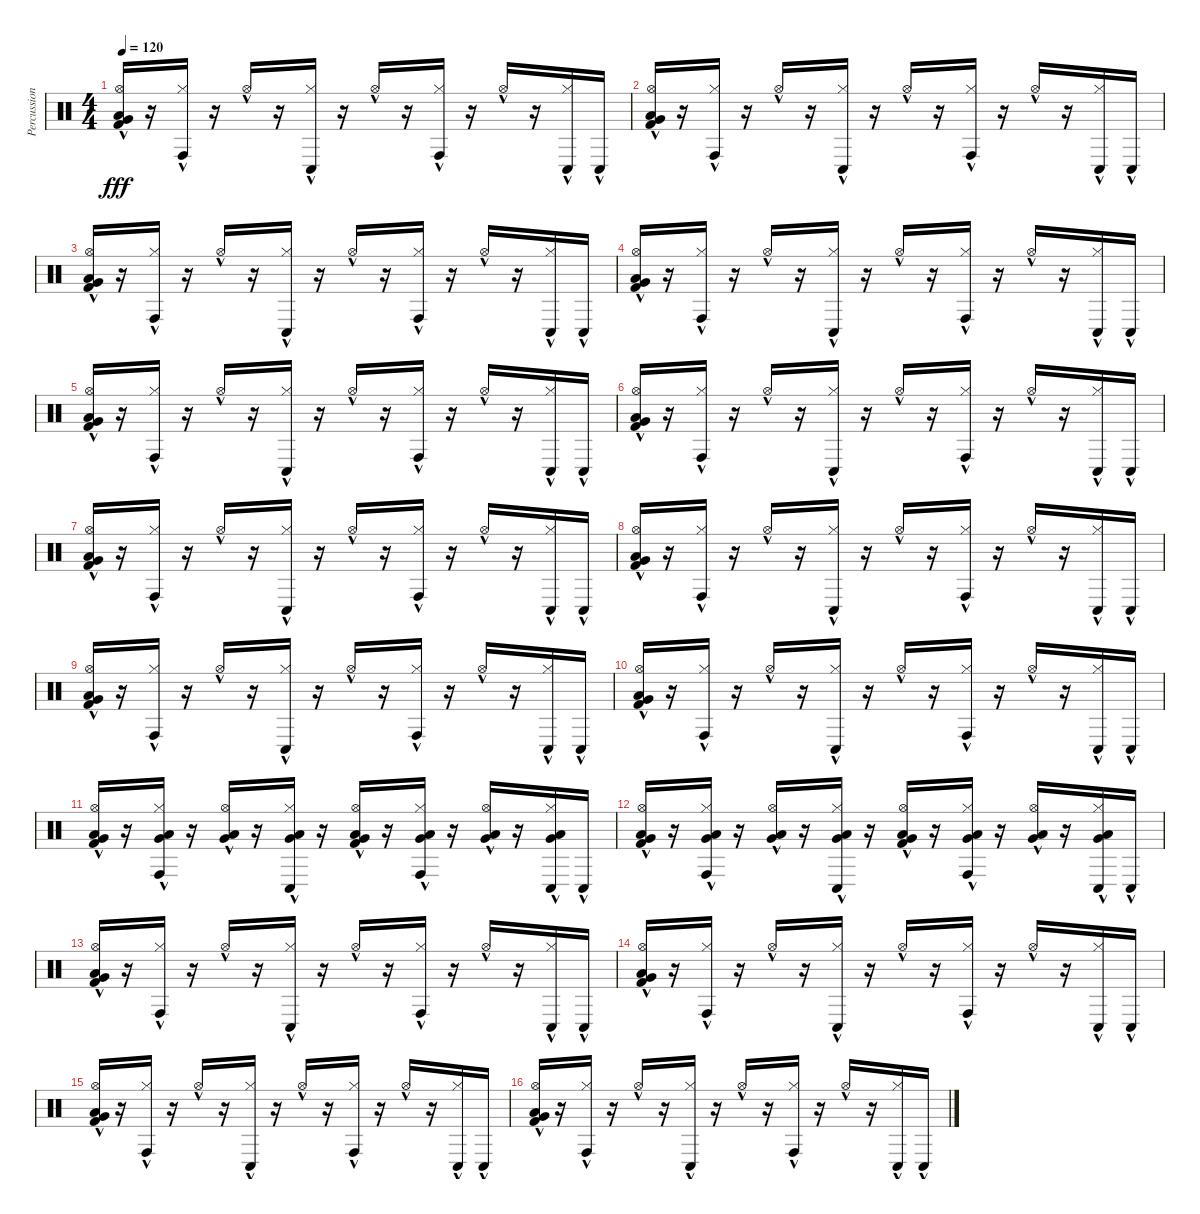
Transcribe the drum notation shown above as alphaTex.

\track ("Percussion" "Percussion") {instrument percussion}
\staff {score}
\articulation defaults
\ts (4 4)
\tempo 120
\clef neutral
\ks c
("Hi-Hat (open)"{hac} "Very Low Tom (hit)"{hac} "Low Floor Tom (hit)"{hac} "Kick (hit) 2"{hac}).16{dy fff} r.16 ("Hi-Hat (closed)"{hac} "Conga high (hit)"{hac}).16 r.16 "Hi-Hat (open)"{hac}.16 r.16 ("Hi-Hat (closed)"{hac} "Conga low (hit)"{hac}).16 r.16 "Hi-Hat (open)"{hac}.16 r.16 ("Hi-Hat (closed)"{hac} "Conga high (hit)"{hac}).16 r.16 "Hi-Hat (open)"{hac}.16 r.16 ("Hi-Hat (closed)"{hac} "Conga low (hit)"{hac}).16 "Conga low (hit)"{hac}.16 |
("Hi-Hat (open)"{hac} "Very Low Tom (hit)"{hac} "Low Floor Tom (hit)"{hac} "Kick (hit) 2"{hac}).16 r.16 ("Hi-Hat (closed)"{hac} "Conga high (hit)"{hac}).16 r.16 "Hi-Hat (open)"{hac}.16 r.16 ("Hi-Hat (closed)"{hac} "Conga low (hit)"{hac}).16 r.16 "Hi-Hat (open)"{hac}.16 r.16 ("Hi-Hat (closed)"{hac} "Conga high (hit)"{hac}).16 r.16 "Hi-Hat (open)"{hac}.16 r.16 ("Hi-Hat (closed)"{hac} "Conga low (hit)"{hac}).16 "Conga low (hit)"{hac}.16 |
("Hi-Hat (open)"{hac} "Very Low Tom (hit)"{hac} "Low Floor Tom (hit)"{hac} "Kick (hit) 2"{hac}).16 r.16 ("Hi-Hat (closed)"{hac} "Conga high (hit)"{hac}).16 r.16 "Hi-Hat (open)"{hac}.16 r.16 ("Hi-Hat (closed)"{hac} "Conga low (hit)"{hac}).16 r.16 "Hi-Hat (open)"{hac}.16 r.16 ("Hi-Hat (closed)"{hac} "Conga high (hit)"{hac}).16 r.16 "Hi-Hat (open)"{hac}.16 r.16 ("Hi-Hat (closed)"{hac} "Conga low (hit)"{hac}).16 "Conga low (hit)"{hac}.16 |
("Hi-Hat (open)"{hac} "Very Low Tom (hit)"{hac} "Low Floor Tom (hit)"{hac} "Kick (hit) 2"{hac}).16 r.16 ("Hi-Hat (closed)"{hac} "Conga high (hit)"{hac}).16 r.16 "Hi-Hat (open)"{hac}.16 r.16 ("Hi-Hat (closed)"{hac} "Conga low (hit)"{hac}).16 r.16 "Hi-Hat (open)"{hac}.16 r.16 ("Hi-Hat (closed)"{hac} "Conga high (hit)"{hac}).16 r.16 "Hi-Hat (open)"{hac}.16 r.16 ("Hi-Hat (closed)"{hac} "Conga low (hit)"{hac}).16 "Conga low (hit)"{hac}.16 |
("Hi-Hat (open)"{hac} "Very Low Tom (hit)"{hac} "Low Floor Tom (hit)"{hac} "Kick (hit) 2"{hac}).16 r.16 ("Hi-Hat (closed)"{hac} "Conga high (hit)"{hac}).16 r.16 "Hi-Hat (open)"{hac}.16 r.16 ("Hi-Hat (closed)"{hac} "Conga low (hit)"{hac}).16 r.16 "Hi-Hat (open)"{hac}.16 r.16 ("Hi-Hat (closed)"{hac} "Conga high (hit)"{hac}).16 r.16 "Hi-Hat (open)"{hac}.16 r.16 ("Hi-Hat (closed)"{hac} "Conga low (hit)"{hac}).16 "Conga low (hit)"{hac}.16 |
("Hi-Hat (open)"{hac} "Very Low Tom (hit)"{hac} "Low Floor Tom (hit)"{hac} "Kick (hit) 2"{hac}).16 r.16 ("Hi-Hat (closed)"{hac} "Conga high (hit)"{hac}).16 r.16 "Hi-Hat (open)"{hac}.16 r.16 ("Hi-Hat (closed)"{hac} "Conga low (hit)"{hac}).16 r.16 "Hi-Hat (open)"{hac}.16 r.16 ("Hi-Hat (closed)"{hac} "Conga high (hit)"{hac}).16 r.16 "Hi-Hat (open)"{hac}.16 r.16 ("Hi-Hat (closed)"{hac} "Conga low (hit)"{hac}).16 "Conga low (hit)"{hac}.16 |
("Hi-Hat (open)"{hac} "Very Low Tom (hit)"{hac} "Low Floor Tom (hit)"{hac} "Kick (hit) 2"{hac}).16 r.16 ("Hi-Hat (closed)"{hac} "Conga high (hit)"{hac}).16 r.16 "Hi-Hat (open)"{hac}.16 r.16 ("Hi-Hat (closed)"{hac} "Conga low (hit)"{hac}).16 r.16 "Hi-Hat (open)"{hac}.16 r.16 ("Hi-Hat (closed)"{hac} "Conga high (hit)"{hac}).16 r.16 "Hi-Hat (open)"{hac}.16 r.16 ("Hi-Hat (closed)"{hac} "Conga low (hit)"{hac}).16 "Conga low (hit)"{hac}.16 |
("Hi-Hat (open)"{hac} "Very Low Tom (hit)"{hac} "Low Floor Tom (hit)"{hac} "Kick (hit) 2"{hac}).16 r.16 ("Hi-Hat (closed)"{hac} "Conga high (hit)"{hac}).16 r.16 "Hi-Hat (open)"{hac}.16 r.16 ("Hi-Hat (closed)"{hac} "Conga low (hit)"{hac}).16 r.16 "Hi-Hat (open)"{hac}.16 r.16 ("Hi-Hat (closed)"{hac} "Conga high (hit)"{hac}).16 r.16 "Hi-Hat (open)"{hac}.16 r.16 ("Hi-Hat (closed)"{hac} "Conga low (hit)"{hac}).16 "Conga low (hit)"{hac}.16 |
("Hi-Hat (open)"{hac} "Very Low Tom (hit)"{hac} "Low Floor Tom (hit)"{hac} "Kick (hit) 2"{hac}).16 r.16 ("Hi-Hat (closed)"{hac} "Conga high (hit)"{hac}).16 r.16 "Hi-Hat (open)"{hac}.16 r.16 ("Hi-Hat (closed)"{hac} "Conga low (hit)"{hac}).16 r.16 "Hi-Hat (open)"{hac}.16 r.16 ("Hi-Hat (closed)"{hac} "Conga high (hit)"{hac}).16 r.16 "Hi-Hat (open)"{hac}.16 r.16 ("Hi-Hat (closed)"{hac} "Conga low (hit)"{hac}).16 "Conga low (hit)"{hac}.16 |
("Hi-Hat (open)"{hac} "Very Low Tom (hit)"{hac} "Low Floor Tom (hit)"{hac} "Kick (hit) 2"{hac}).16 r.16 ("Hi-Hat (closed)"{hac} "Conga high (hit)"{hac}).16 r.16 "Hi-Hat (open)"{hac}.16 r.16 ("Hi-Hat (closed)"{hac} "Conga low (hit)"{hac}).16 r.16 "Hi-Hat (open)"{hac}.16 r.16 ("Hi-Hat (closed)"{hac} "Conga high (hit)"{hac}).16 r.16 "Hi-Hat (open)"{hac}.16 r.16 ("Hi-Hat (closed)"{hac} "Conga low (hit)"{hac}).16 "Conga low (hit)"{hac}.16 |
("Hi-Hat (open)"{hac} "Very Low Tom (hit)"{hac} "Low Floor Tom (hit)"{hac} "Kick (hit) 2"{hac}).16 r.16 ("Hi-Hat (closed)"{hac} "Very Low Tom (hit)"{hac} "Conga high (hit)"{hac} "Low Floor Tom (hit)"{hac}).16 r.16 ("Hi-Hat (open)"{hac} "Very Low Tom (hit)"{hac} "Low Floor Tom (hit)"{hac}).16 r.16 ("Hi-Hat (closed)"{hac} "Very Low Tom (hit)"{hac} "Conga low (hit)"{hac} "Low Floor Tom (hit)"{hac}).16 r.16 ("Hi-Hat (open)"{hac} "Very Low Tom (hit)"{hac} "Low Floor Tom (hit)"{hac} "Kick (hit) 2"{hac}).16 r.16 ("Hi-Hat (closed)"{hac} "Very Low Tom (hit)"{hac} "Conga high (hit)"{hac} "Low Floor Tom (hit)"{hac}).16 r.16 ("Hi-Hat (open)"{hac} "Very Low Tom (hit)"{hac} "Low Floor Tom (hit)"{hac}).16 r.16 ("Hi-Hat (closed)"{hac} "Very Low Tom (hit)"{hac} "Conga low (hit)"{hac} "Low Floor Tom (hit)"{hac}).16 "Conga low (hit)"{hac}.16 |
("Hi-Hat (open)"{hac} "Very Low Tom (hit)"{hac} "Low Floor Tom (hit)"{hac} "Kick (hit) 2"{hac}).16 r.16 ("Hi-Hat (closed)"{hac} "Very Low Tom (hit)"{hac} "Conga high (hit)"{hac} "Low Floor Tom (hit)"{hac}).16 r.16 ("Hi-Hat (open)"{hac} "Very Low Tom (hit)"{hac} "Low Floor Tom (hit)"{hac}).16 r.16 ("Hi-Hat (closed)"{hac} "Very Low Tom (hit)"{hac} "Conga low (hit)"{hac} "Low Floor Tom (hit)"{hac}).16 r.16 ("Hi-Hat (open)"{hac} "Very Low Tom (hit)"{hac} "Low Floor Tom (hit)"{hac} "Kick (hit) 2"{hac}).16 r.16 ("Hi-Hat (closed)"{hac} "Very Low Tom (hit)"{hac} "Conga high (hit)"{hac} "Low Floor Tom (hit)"{hac}).16 r.16 ("Hi-Hat (open)"{hac} "Very Low Tom (hit)"{hac} "Low Floor Tom (hit)"{hac}).16 r.16 ("Hi-Hat (closed)"{hac} "Very Low Tom (hit)"{hac} "Conga low (hit)"{hac} "Low Floor Tom (hit)"{hac}).16 "Conga low (hit)"{hac}.16 |
("Hi-Hat (open)"{hac} "Very Low Tom (hit)"{hac} "Low Floor Tom (hit)"{hac} "Kick (hit) 2"{hac}).16 r.16 ("Hi-Hat (closed)"{hac} "Conga high (hit)"{hac}).16 r.16 "Hi-Hat (open)"{hac}.16 r.16 ("Hi-Hat (closed)"{hac} "Conga low (hit)"{hac}).16 r.16 "Hi-Hat (open)"{hac}.16 r.16 ("Hi-Hat (closed)"{hac} "Conga high (hit)"{hac}).16 r.16 "Hi-Hat (open)"{hac}.16 r.16 ("Hi-Hat (closed)"{hac} "Conga low (hit)"{hac}).16 "Conga low (hit)"{hac}.16 |
("Hi-Hat (open)"{hac} "Very Low Tom (hit)"{hac} "Low Floor Tom (hit)"{hac} "Kick (hit) 2"{hac}).16 r.16 ("Hi-Hat (closed)"{hac} "Conga high (hit)"{hac}).16 r.16 "Hi-Hat (open)"{hac}.16 r.16 ("Hi-Hat (closed)"{hac} "Conga low (hit)"{hac}).16 r.16 "Hi-Hat (open)"{hac}.16 r.16 ("Hi-Hat (closed)"{hac} "Conga high (hit)"{hac}).16 r.16 "Hi-Hat (open)"{hac}.16 r.16 ("Hi-Hat (closed)"{hac} "Conga low (hit)"{hac}).16 "Conga low (hit)"{hac}.16 |
("Hi-Hat (open)"{hac} "Very Low Tom (hit)"{hac} "Low Floor Tom (hit)"{hac} "Kick (hit) 2"{hac}).16 r.16 ("Hi-Hat (closed)"{hac} "Conga high (hit)"{hac}).16 r.16 "Hi-Hat (open)"{hac}.16 r.16 ("Hi-Hat (closed)"{hac} "Conga low (hit)"{hac}).16 r.16 "Hi-Hat (open)"{hac}.16 r.16 ("Hi-Hat (closed)"{hac} "Conga high (hit)"{hac}).16 r.16 "Hi-Hat (open)"{hac}.16 r.16 ("Hi-Hat (closed)"{hac} "Conga low (hit)"{hac}).16 "Conga low (hit)"{hac}.16 |
("Hi-Hat (open)"{hac} "Very Low Tom (hit)"{hac} "Low Floor Tom (hit)"{hac} "Kick (hit) 2"{hac}).16 r.16 ("Hi-Hat (closed)"{hac} "Conga high (hit)"{hac}).16 r.16 "Hi-Hat (open)"{hac}.16 r.16 ("Hi-Hat (closed)"{hac} "Conga low (hit)"{hac}).16 r.16 "Hi-Hat (open)"{hac}.16 r.16 ("Hi-Hat (closed)"{hac} "Conga high (hit)"{hac}).16 r.16 "Hi-Hat (open)"{hac}.16 r.16 ("Hi-Hat (closed)"{hac} "Conga low (hit)"{hac}).16 "Conga low (hit)"{hac}.16
